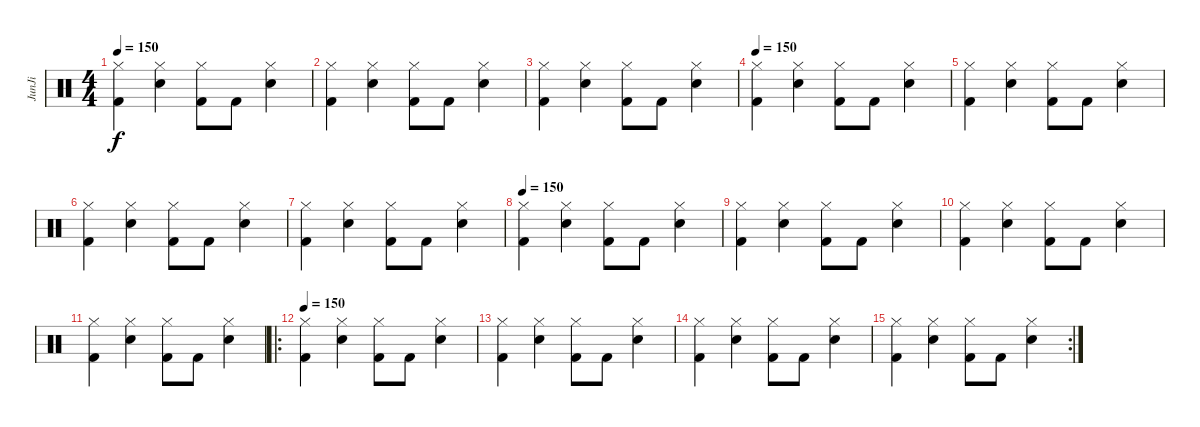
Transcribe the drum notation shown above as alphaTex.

\track ("JunJi" "JunJi") {instrument percussion}
\staff {score}
\articulation defaults
\ts (4 4)
\tempo 150
\clef neutral
\ks c
("Hi-Hat (closed)" "Kick (hit) 2").4{dy f} ("Electric Snare (hit)" "Hi-Hat (closed)").4 ("Hi-Hat (closed)" "Kick (hit) 2").8 "Kick (hit) 2".8 ("Electric Snare (hit)" "Hi-Hat (closed)").4 |
("Hi-Hat (closed)" "Kick (hit) 2").4 ("Electric Snare (hit)" "Hi-Hat (closed)").4 ("Hi-Hat (closed)" "Kick (hit) 2").8 "Kick (hit) 2".8 ("Electric Snare (hit)" "Hi-Hat (closed)").4 |
("Hi-Hat (closed)" "Kick (hit) 2").4 ("Electric Snare (hit)" "Hi-Hat (closed)").4 ("Hi-Hat (closed)" "Kick (hit) 2").8 "Kick (hit) 2".8 ("Electric Snare (hit)" "Hi-Hat (closed)").4 |
\tempo 150
("Hi-Hat (closed)" "Kick (hit) 2").4 ("Electric Snare (hit)" "Hi-Hat (closed)").4 ("Hi-Hat (closed)" "Kick (hit) 2").8 "Kick (hit) 2".8 ("Electric Snare (hit)" "Hi-Hat (closed)").4 |
("Hi-Hat (closed)" "Kick (hit) 2").4 ("Electric Snare (hit)" "Hi-Hat (closed)").4 ("Hi-Hat (closed)" "Kick (hit) 2").8 "Kick (hit) 2".8 ("Electric Snare (hit)" "Hi-Hat (closed)").4 |
("Hi-Hat (closed)" "Kick (hit) 2").4 ("Electric Snare (hit)" "Hi-Hat (closed)").4 ("Hi-Hat (closed)" "Kick (hit) 2").8 "Kick (hit) 2".8 ("Electric Snare (hit)" "Hi-Hat (closed)").4 |
("Hi-Hat (closed)" "Kick (hit) 2").4 ("Electric Snare (hit)" "Hi-Hat (closed)").4 ("Hi-Hat (closed)" "Kick (hit) 2").8 "Kick (hit) 2".8 ("Electric Snare (hit)" "Hi-Hat (closed)").4 |
\tempo 150
("Hi-Hat (closed)" "Kick (hit) 2").4 ("Electric Snare (hit)" "Hi-Hat (closed)").4 ("Hi-Hat (closed)" "Kick (hit) 2").8 "Kick (hit) 2".8 ("Electric Snare (hit)" "Hi-Hat (closed)").4 |
("Hi-Hat (closed)" "Kick (hit) 2").4 ("Electric Snare (hit)" "Hi-Hat (closed)").4 ("Hi-Hat (closed)" "Kick (hit) 2").8 "Kick (hit) 2".8 ("Electric Snare (hit)" "Hi-Hat (closed)").4 |
("Hi-Hat (closed)" "Kick (hit) 2").4 ("Electric Snare (hit)" "Hi-Hat (closed)").4 ("Hi-Hat (closed)" "Kick (hit) 2").8 "Kick (hit) 2".8 ("Electric Snare (hit)" "Hi-Hat (closed)").4 |
("Hi-Hat (closed)" "Kick (hit) 2").4 ("Electric Snare (hit)" "Hi-Hat (closed)").4 ("Hi-Hat (closed)" "Kick (hit) 2").8 "Kick (hit) 2".8 ("Electric Snare (hit)" "Hi-Hat (closed)").4 |
\ro
\tempo 150
("Hi-Hat (closed)" "Kick (hit) 2").4 ("Electric Snare (hit)" "Hi-Hat (closed)").4 ("Hi-Hat (closed)" "Kick (hit) 2").8 "Kick (hit) 2".8 ("Electric Snare (hit)" "Hi-Hat (closed)").4 |
("Hi-Hat (closed)" "Kick (hit) 2").4 ("Electric Snare (hit)" "Hi-Hat (closed)").4 ("Hi-Hat (closed)" "Kick (hit) 2").8 "Kick (hit) 2".8 ("Electric Snare (hit)" "Hi-Hat (closed)").4 |
("Hi-Hat (closed)" "Kick (hit) 2").4 ("Electric Snare (hit)" "Hi-Hat (closed)").4 ("Hi-Hat (closed)" "Kick (hit) 2").8 "Kick (hit) 2".8 ("Electric Snare (hit)" "Hi-Hat (closed)").4 |
\rc 2
("Hi-Hat (closed)" "Kick (hit) 2").4 ("Electric Snare (hit)" "Hi-Hat (closed)").4 ("Hi-Hat (closed)" "Kick (hit) 2").8 "Kick (hit) 2".8 ("Electric Snare (hit)" "Hi-Hat (closed)").4
